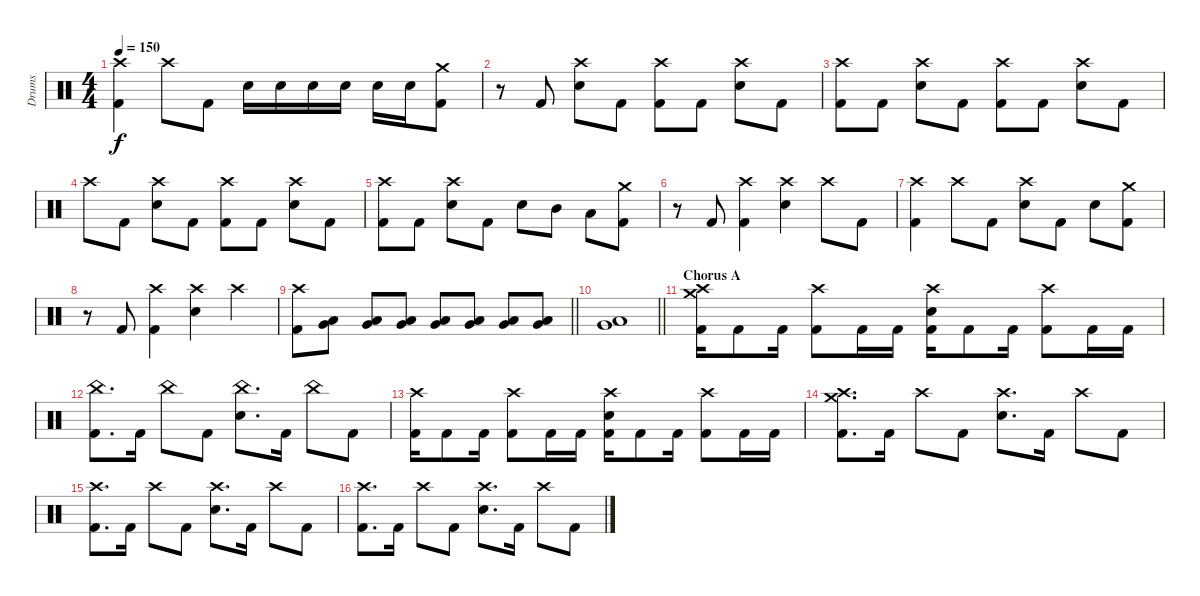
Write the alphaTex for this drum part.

\track ("Drums" "Drums") {instrument percussion}
\staff {score}
\articulation defaults
\ts (4 4)
\tempo 150
\clef neutral
\ks c
("Crash high (hit)" "Kick (hit) 2").4{dy f} "Crash high (hit)".8 "Kick (hit) 2".8 "Snare (hit) 2".16 "Snare (hit) 2".16 "Snare (hit) 2".16 "Snare (hit) 2".16 "Snare (hit) 2".16 "Snare (hit) 2".16 ("Crash medium (hit)" "Kick (hit) 2").8 |
r.8 "Kick (hit) 2".8 ("Crash high (hit)" "Snare (hit) 2").8 "Kick (hit) 2".8 ("Crash high (hit)" "Kick (hit) 2").8 "Kick (hit) 2".8 ("Crash high (hit)" "Snare (hit) 2").8 "Kick (hit) 2".8 |
("Crash high (hit)" "Kick (hit) 2").8 "Kick (hit) 2".8 ("Crash high (hit)" "Snare (hit) 2").8 "Kick (hit) 2".8 ("Crash high (hit)" "Kick (hit) 2").8 "Kick (hit) 2".8 ("Crash high (hit)" "Snare (hit) 2").8 "Kick (hit) 2".8 |
"Crash high (hit)".8 "Kick (hit) 2".8 ("Crash high (hit)" "Snare (hit) 2").8 "Kick (hit) 2".8 ("Crash high (hit)" "Kick (hit) 2").8 "Kick (hit) 2".8 ("Crash high (hit)" "Snare (hit) 2").8 "Kick (hit) 2".8 |
("Crash high (hit)" "Kick (hit) 2").8 "Kick (hit) 2".8 ("Crash high (hit)" "Snare (hit) 2").8 "Kick (hit) 2".8 "Snare (hit) 2".8 "Mid Tom (hit)".8 "Low Tom (hit)".8 ("Crash medium (hit)" "Kick (hit) 2").8 |
r.8 "Kick (hit) 2".8 ("Crash high (hit)" "Kick (hit) 2").4 ("Crash high (hit)" "Snare (hit) 2").4 "Crash high (hit)".8 "Kick (hit) 2".8 |
("Crash high (hit)" "Kick (hit) 2").4 "Crash high (hit)".8 "Kick (hit) 2".8 ("Crash high (hit)" "Snare (hit) 2").8 "Kick (hit) 2".8 "Snare (hit) 2".8 ("Crash medium (hit)" "Kick (hit) 2").8 |
r.8 "Kick (hit) 2".8 ("Crash high (hit)" "Kick (hit) 2").4 ("Crash high (hit)" "Snare (hit) 2").4 "Crash high (hit)".4 |
\barLineRight lightlight
("Crash high (hit)" "Kick (hit) 2").8 ("Low Tom (hit)" "Very Low Tom (hit)").8 ("Low Tom (hit)" "Very Low Tom (hit)").8 ("Low Tom (hit)" "Very Low Tom (hit)").8 ("Low Tom (hit)" "Very Low Tom (hit)").8 ("Low Tom (hit)" "Very Low Tom (hit)").8 ("Low Tom (hit)" "Very Low Tom (hit)").8 ("Low Tom (hit)" "Very Low Tom (hit)").8 |
\barLineRight lightlight
("Low Tom (hit)" "Very Low Tom (hit)").1 |
\section ("" "Chorus A")
("Crash high (hit)" "Crash medium (hit)" "Kick (hit) 2").16 "Kick (hit) 2".8 "Kick (hit) 2".16 ("Crash high (hit)" "Kick (hit) 2").8 "Kick (hit) 2".16 "Kick (hit) 2".16 ("Crash high (hit)" "Snare (hit) 2" "Kick (hit) 2").16 "Kick (hit) 2".8 "Kick (hit) 2".16 ("Crash high (hit)" "Kick (hit) 2").8 "Kick (hit) 2".16 "Kick (hit) 2".16 |
("China (hit)" "Kick (hit) 2").8{d} "Kick (hit) 2".16 "China (hit)".8 "Kick (hit) 2".8 ("China (hit)" "Snare (hit) 2").8{d} "Kick (hit) 2".16 "China (hit)".8 "Kick (hit) 2".8 |
("Crash high (hit)" "Kick (hit) 2").16 "Kick (hit) 2".8 "Kick (hit) 2".16 ("Crash high (hit)" "Kick (hit) 2").8 "Kick (hit) 2".16 "Kick (hit) 2".16 ("Crash high (hit)" "Snare (hit) 2" "Kick (hit) 2").16 "Kick (hit) 2".8 "Kick (hit) 2".16 ("Crash high (hit)" "Kick (hit) 2").8 "Kick (hit) 2".16 "Kick (hit) 2".16 |
("Crash high (hit)" "Crash medium (hit)" "Kick (hit) 2").8{d} "Kick (hit) 2".16 "Crash high (hit)".8 "Kick (hit) 2".8 ("Crash high (hit)" "Snare (hit) 2").8{d} "Kick (hit) 2".16 "Crash high (hit)".8 "Kick (hit) 2".8 |
("Crash high (hit)" "Kick (hit) 2").8{d} "Kick (hit) 2".16 "Crash high (hit)".8 "Kick (hit) 2".8 ("Crash high (hit)" "Snare (hit) 2").8{d} "Kick (hit) 2".16 "Crash high (hit)".8 "Kick (hit) 2".8 |
("Crash high (hit)" "Kick (hit) 2").8{d} "Kick (hit) 2".16 "Crash high (hit)".8 "Kick (hit) 2".8 ("Crash high (hit)" "Snare (hit) 2").8{d} "Kick (hit) 2".16 "Crash high (hit)".8 "Kick (hit) 2".8
